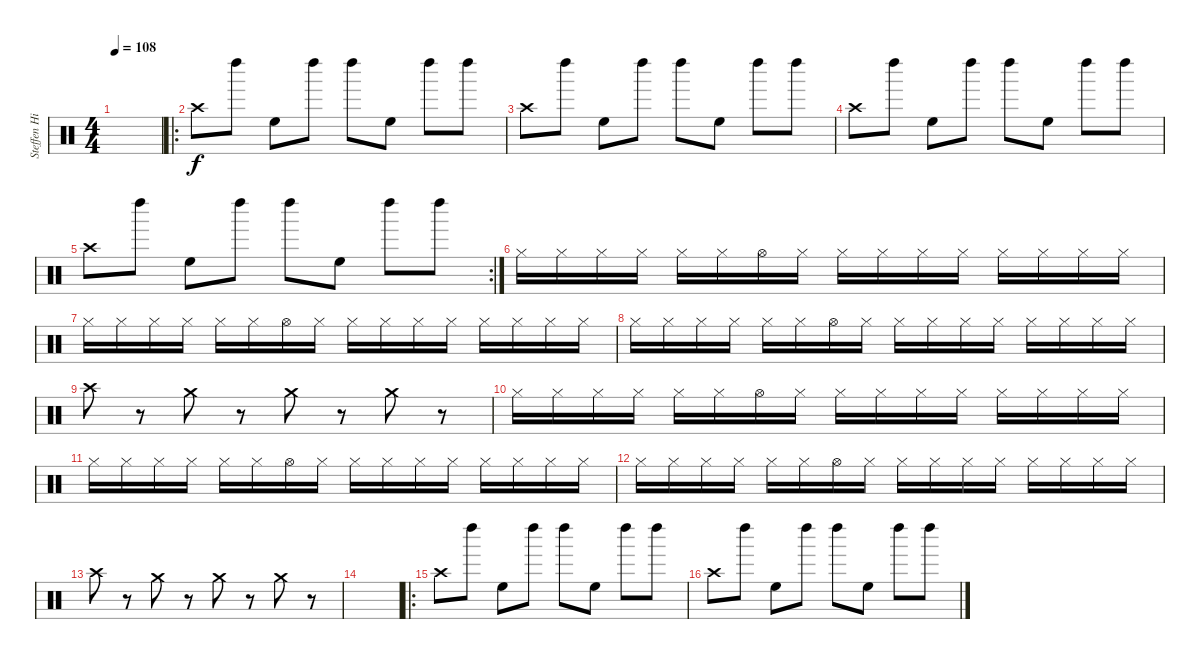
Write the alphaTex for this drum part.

\track ("Steffen Highhead" "Steffen Hi") {instrument percussion}
\staff {score}
\articulation defaults
\ts (4 4)
\tempo 108
\clef neutral
\ks c
|
\ro "Crash high (hit)".8 "Left Maraca (hit)".8 "High Floor Tom (hit)".8 "Left Maraca (hit)".8 "Left Maraca (hit)".8 "High Floor Tom (hit)".8 "Left Maraca (hit)".8 "Left Maraca (hit)".8
|
"Crash high (hit)".8 "Left Maraca (hit)".8 "High Floor Tom (hit)".8 "Left Maraca (hit)".8 "Left Maraca (hit)".8 "High Floor Tom (hit)".8 "Left Maraca (hit)".8 "Left Maraca (hit)".8 |
"Crash high (hit)".8 "Left Maraca (hit)".8 "High Floor Tom (hit)".8 "Left Maraca (hit)".8 "Left Maraca (hit)".8 "High Floor Tom (hit)".8 "Left Maraca (hit)".8 "Left Maraca (hit)".8 |
\rc 2 "Crash high (hit)".8 "Left Maraca (hit)".8 "High Floor Tom (hit)".8 "Left Maraca (hit)".8 "Left Maraca (hit)".8 "High Floor Tom (hit)".8 "Left Maraca (hit)".8 "Left Maraca (hit)".8
|
"Hi-Hat (closed)".16 "Hi-Hat (closed)".16 "Hi-Hat (closed)".16 "Hi-Hat (closed)".16 "Hi-Hat (closed)".16 "Hi-Hat (closed)".16 "Hi-Hat (open)".16 "Hi-Hat (closed)".16 "Hi-Hat (closed)".16 "Hi-Hat (closed)".16 "Hi-Hat (closed)".16 "Hi-Hat (closed)".16 "Hi-Hat (closed)".16 "Hi-Hat (closed)".16 "Hi-Hat (closed)".16 "Hi-Hat (closed)".16 |
"Hi-Hat (closed)".16 "Hi-Hat (closed)".16 "Hi-Hat (closed)".16 "Hi-Hat (closed)".16 "Hi-Hat (closed)".16 "Hi-Hat (closed)".16 "Hi-Hat (open)".16 "Hi-Hat (closed)".16 "Hi-Hat (closed)".16 "Hi-Hat (closed)".16 "Hi-Hat (closed)".16 "Hi-Hat (closed)".16 "Hi-Hat (closed)".16 "Hi-Hat (closed)".16 "Hi-Hat (closed)".16 "Hi-Hat (closed)".16 |
"Hi-Hat (closed)".16 "Hi-Hat (closed)".16 "Hi-Hat (closed)".16 "Hi-Hat (closed)".16 "Hi-Hat (closed)".16 "Hi-Hat (closed)".16 "Hi-Hat (open)".16 "Hi-Hat (closed)".16 "Hi-Hat (closed)".16 "Hi-Hat (closed)".16 "Hi-Hat (closed)".16 "Hi-Hat (closed)".16 "Hi-Hat (closed)".16 "Hi-Hat (closed)".16 "Hi-Hat (closed)".16 "Hi-Hat (closed)".16 |
"Crash high (hit)".8 r.8 "Crash medium (hit)".8 r.8 "Crash medium (hit)".8 r.8 "Crash medium (hit)".8 r.8 |
"Hi-Hat (closed)".16 "Hi-Hat (closed)".16 "Hi-Hat (closed)".16 "Hi-Hat (closed)".16 "Hi-Hat (closed)".16 "Hi-Hat (closed)".16 "Hi-Hat (open)".16 "Hi-Hat (closed)".16 "Hi-Hat (closed)".16 "Hi-Hat (closed)".16 "Hi-Hat (closed)".16 "Hi-Hat (closed)".16 "Hi-Hat (closed)".16 "Hi-Hat (closed)".16 "Hi-Hat (closed)".16 "Hi-Hat (closed)".16 |
"Hi-Hat (closed)".16 "Hi-Hat (closed)".16 "Hi-Hat (closed)".16 "Hi-Hat (closed)".16 "Hi-Hat (closed)".16 "Hi-Hat (closed)".16 "Hi-Hat (open)".16 "Hi-Hat (closed)".16 "Hi-Hat (closed)".16 "Hi-Hat (closed)".16 "Hi-Hat (closed)".16 "Hi-Hat (closed)".16 "Hi-Hat (closed)".16 "Hi-Hat (closed)".16 "Hi-Hat (closed)".16 "Hi-Hat (closed)".16 |
"Hi-Hat (closed)".16 "Hi-Hat (closed)".16 "Hi-Hat (closed)".16 "Hi-Hat (closed)".16 "Hi-Hat (closed)".16 "Hi-Hat (closed)".16 "Hi-Hat (open)".16 "Hi-Hat (closed)".16 "Hi-Hat (closed)".16 "Hi-Hat (closed)".16 "Hi-Hat (closed)".16 "Hi-Hat (closed)".16 "Hi-Hat (closed)".16 "Hi-Hat (closed)".16 "Hi-Hat (closed)".16 "Hi-Hat (closed)".16 |
"Crash high (hit)".8 r.8 "Crash medium (hit)".8 r.8 "Crash medium (hit)".8 r.8 "Crash medium (hit)".8 r.8 |
|
\ro "Crash high (hit)".8 "Left Maraca (hit)".8 "High Floor Tom (hit)".8 "Left Maraca (hit)".8 "Left Maraca (hit)".8 "High Floor Tom (hit)".8 "Left Maraca (hit)".8 "Left Maraca (hit)".8
|
"Crash high (hit)".8 "Left Maraca (hit)".8 "High Floor Tom (hit)".8 "Left Maraca (hit)".8 "Left Maraca (hit)".8 "High Floor Tom (hit)".8 "Left Maraca (hit)".8 "Left Maraca (hit)".8
